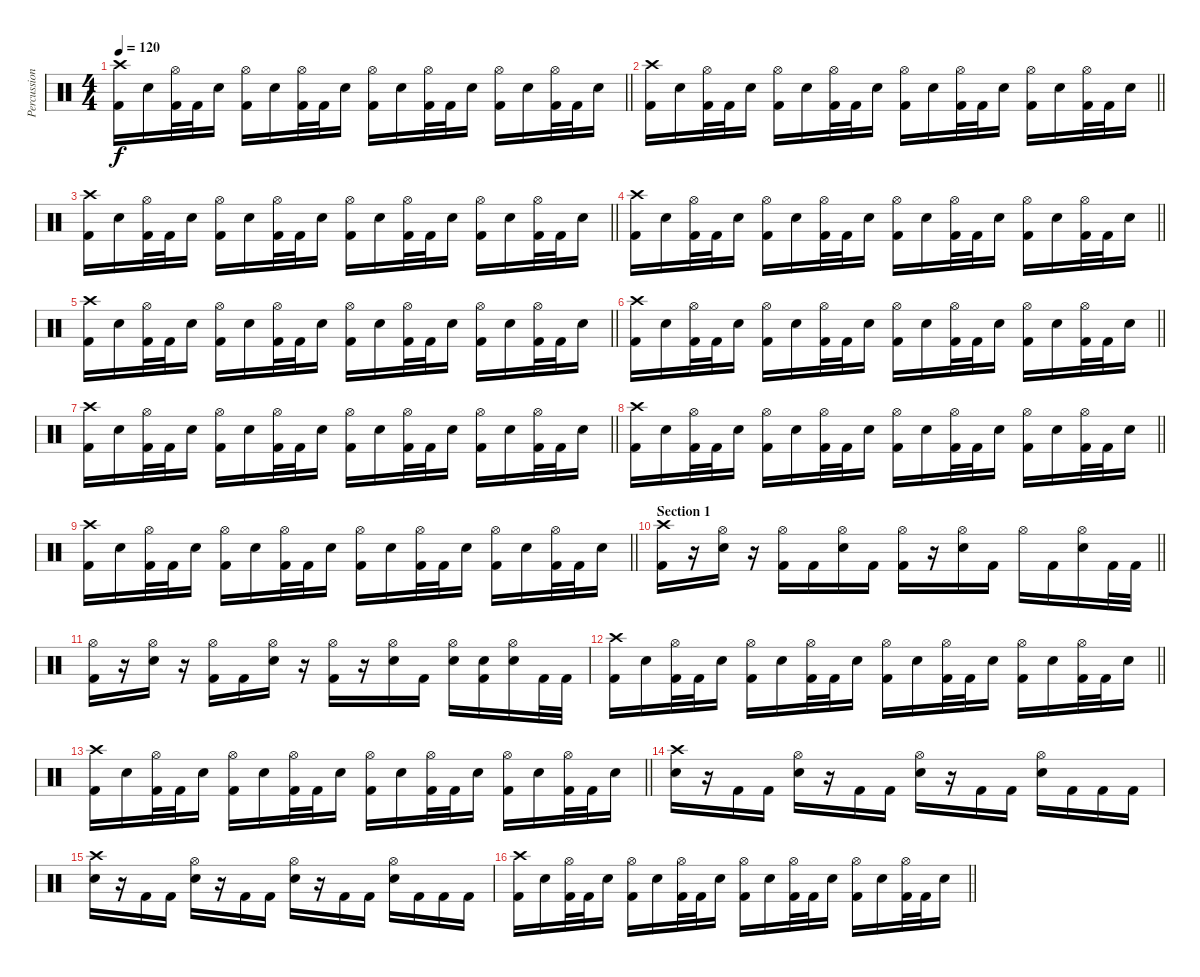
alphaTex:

\track ("Percussion" "Percussion") {instrument percussion}
\staff {score}
\articulation defaults
\ts (4 4)
\tempo 120
\clef neutral
\barLineRight lightlight
\ks c
("Crash high (hit)" "Kick (hit) 2").16{dy f} "Snare (hit) 2".16 ("Hi-Hat (open)" "Kick (hit) 2").32 "Kick (hit) 2".32 "Snare (hit) 2".16 ("Hi-Hat (open)" "Kick (hit) 2").16 "Snare (hit) 2".16 ("Hi-Hat (open)" "Kick (hit) 2").32 "Kick (hit) 2".32 "Snare (hit) 2".16 ("Hi-Hat (open)" "Kick (hit) 2").16 "Snare (hit) 2".16 ("Hi-Hat (open)" "Kick (hit) 2").32 "Kick (hit) 2".32 "Snare (hit) 2".16 ("Hi-Hat (open)" "Kick (hit) 2").16 "Snare (hit) 2".16 ("Hi-Hat (open)" "Kick (hit) 2").32 "Kick (hit) 2".32 "Snare (hit) 2".16 |
\section ("" "")
\barLineRight lightlight
("Crash high (hit)" "Kick (hit) 2").16 "Snare (hit) 2".16 ("Hi-Hat (open)" "Kick (hit) 2").32 "Kick (hit) 2".32 "Snare (hit) 2".16 ("Hi-Hat (open)" "Kick (hit) 2").16 "Snare (hit) 2".16 ("Hi-Hat (open)" "Kick (hit) 2").32 "Kick (hit) 2".32 "Snare (hit) 2".16 ("Hi-Hat (open)" "Kick (hit) 2").16 "Snare (hit) 2".16 ("Hi-Hat (open)" "Kick (hit) 2").32 "Kick (hit) 2".32 "Snare (hit) 2".16 ("Hi-Hat (open)" "Kick (hit) 2").16 "Snare (hit) 2".16 ("Hi-Hat (open)" "Kick (hit) 2").32 "Kick (hit) 2".32 "Snare (hit) 2".16 |
\barLineRight lightlight
("Crash high (hit)" "Kick (hit) 2").16 "Snare (hit) 2".16 ("Hi-Hat (open)" "Kick (hit) 2").32 "Kick (hit) 2".32 "Snare (hit) 2".16 ("Hi-Hat (open)" "Kick (hit) 2").16 "Snare (hit) 2".16 ("Hi-Hat (open)" "Kick (hit) 2").32 "Kick (hit) 2".32 "Snare (hit) 2".16 ("Hi-Hat (open)" "Kick (hit) 2").16 "Snare (hit) 2".16 ("Hi-Hat (open)" "Kick (hit) 2").32 "Kick (hit) 2".32 "Snare (hit) 2".16 ("Hi-Hat (open)" "Kick (hit) 2").16 "Snare (hit) 2".16 ("Hi-Hat (open)" "Kick (hit) 2").32 "Kick (hit) 2".32 "Snare (hit) 2".16 |
\barLineRight lightlight
("Crash high (hit)" "Kick (hit) 2").16 "Snare (hit) 2".16 ("Hi-Hat (open)" "Kick (hit) 2").32 "Kick (hit) 2".32 "Snare (hit) 2".16 ("Hi-Hat (open)" "Kick (hit) 2").16 "Snare (hit) 2".16 ("Hi-Hat (open)" "Kick (hit) 2").32 "Kick (hit) 2".32 "Snare (hit) 2".16 ("Hi-Hat (open)" "Kick (hit) 2").16 "Snare (hit) 2".16 ("Hi-Hat (open)" "Kick (hit) 2").32 "Kick (hit) 2".32 "Snare (hit) 2".16 ("Hi-Hat (open)" "Kick (hit) 2").16 "Snare (hit) 2".16 ("Hi-Hat (open)" "Kick (hit) 2").32 "Kick (hit) 2".32 "Snare (hit) 2".16 |
\barLineRight lightlight
("Crash high (hit)" "Kick (hit) 2").16 "Snare (hit) 2".16 ("Hi-Hat (open)" "Kick (hit) 2").32 "Kick (hit) 2".32 "Snare (hit) 2".16 ("Hi-Hat (open)" "Kick (hit) 2").16 "Snare (hit) 2".16 ("Hi-Hat (open)" "Kick (hit) 2").32 "Kick (hit) 2".32 "Snare (hit) 2".16 ("Hi-Hat (open)" "Kick (hit) 2").16 "Snare (hit) 2".16 ("Hi-Hat (open)" "Kick (hit) 2").32 "Kick (hit) 2".32 "Snare (hit) 2".16 ("Hi-Hat (open)" "Kick (hit) 2").16 "Snare (hit) 2".16 ("Hi-Hat (open)" "Kick (hit) 2").32 "Kick (hit) 2".32 "Snare (hit) 2".16 |
\barLineRight lightlight
("Crash high (hit)" "Kick (hit) 2").16 "Snare (hit) 2".16 ("Hi-Hat (open)" "Kick (hit) 2").32 "Kick (hit) 2".32 "Snare (hit) 2".16 ("Hi-Hat (open)" "Kick (hit) 2").16 "Snare (hit) 2".16 ("Hi-Hat (open)" "Kick (hit) 2").32 "Kick (hit) 2".32 "Snare (hit) 2".16 ("Hi-Hat (open)" "Kick (hit) 2").16 "Snare (hit) 2".16 ("Hi-Hat (open)" "Kick (hit) 2").32 "Kick (hit) 2".32 "Snare (hit) 2".16 ("Hi-Hat (open)" "Kick (hit) 2").16 "Snare (hit) 2".16 ("Hi-Hat (open)" "Kick (hit) 2").32 "Kick (hit) 2".32 "Snare (hit) 2".16 |
\barLineRight lightlight
("Crash high (hit)" "Kick (hit) 2").16 "Snare (hit) 2".16 ("Hi-Hat (open)" "Kick (hit) 2").32 "Kick (hit) 2".32 "Snare (hit) 2".16 ("Hi-Hat (open)" "Kick (hit) 2").16 "Snare (hit) 2".16 ("Hi-Hat (open)" "Kick (hit) 2").32 "Kick (hit) 2".32 "Snare (hit) 2".16 ("Hi-Hat (open)" "Kick (hit) 2").16 "Snare (hit) 2".16 ("Hi-Hat (open)" "Kick (hit) 2").32 "Kick (hit) 2".32 "Snare (hit) 2".16 ("Hi-Hat (open)" "Kick (hit) 2").16 "Snare (hit) 2".16 ("Hi-Hat (open)" "Kick (hit) 2").32 "Kick (hit) 2".32 "Snare (hit) 2".16 |
\barLineRight lightlight
("Crash high (hit)" "Kick (hit) 2").16 "Snare (hit) 2".16 ("Hi-Hat (open)" "Kick (hit) 2").32 "Kick (hit) 2".32 "Snare (hit) 2".16 ("Hi-Hat (open)" "Kick (hit) 2").16 "Snare (hit) 2".16 ("Hi-Hat (open)" "Kick (hit) 2").32 "Kick (hit) 2".32 "Snare (hit) 2".16 ("Hi-Hat (open)" "Kick (hit) 2").16 "Snare (hit) 2".16 ("Hi-Hat (open)" "Kick (hit) 2").32 "Kick (hit) 2".32 "Snare (hit) 2".16 ("Hi-Hat (open)" "Kick (hit) 2").16 "Snare (hit) 2".16 ("Hi-Hat (open)" "Kick (hit) 2").32 "Kick (hit) 2".32 "Snare (hit) 2".16 |
\barLineRight lightlight
("Crash high (hit)" "Kick (hit) 2").16 "Snare (hit) 2".16 ("Hi-Hat (open)" "Kick (hit) 2").32 "Kick (hit) 2".32 "Snare (hit) 2".16 ("Hi-Hat (open)" "Kick (hit) 2").16 "Snare (hit) 2".16 ("Hi-Hat (open)" "Kick (hit) 2").32 "Kick (hit) 2".32 "Snare (hit) 2".16 ("Hi-Hat (open)" "Kick (hit) 2").16 "Snare (hit) 2".16 ("Hi-Hat (open)" "Kick (hit) 2").32 "Kick (hit) 2".32 "Snare (hit) 2".16 ("Hi-Hat (open)" "Kick (hit) 2").16 "Snare (hit) 2".16 ("Hi-Hat (open)" "Kick (hit) 2").32 "Kick (hit) 2".32 "Snare (hit) 2".16 |
\section ("" "Section 1")
\barLineRight lightlight
("Crash high (hit)" "Kick (hit) 2").16 r.16 ("Hi-Hat (open)" "Snare (hit) 2").16 r.16 ("Hi-Hat (open)" "Kick (hit) 2").16 "Kick (hit) 2".16 ("Hi-Hat (open)" "Snare (hit) 2").16 "Kick (hit) 2".16 ("Hi-Hat (open)" "Kick (hit) 2").16 r.16 ("Hi-Hat (open)" "Snare (hit) 2").16 "Kick (hit) 2".16 "Hi-Hat (open)".16 "Kick (hit) 2".16 ("Hi-Hat (open)" "Snare (hit) 2").16 "Kick (hit) 2".32 "Kick (hit) 2".32 |
("Hi-Hat (open)" "Kick (hit) 2").16 r.16 ("Hi-Hat (open)" "Snare (hit) 2").16 r.16 ("Hi-Hat (open)" "Kick (hit) 2").16 "Kick (hit) 2".16 ("Hi-Hat (open)" "Snare (hit) 2").16 r.16 ("Hi-Hat (open)" "Kick (hit) 2").16 r.16 ("Hi-Hat (open)" "Snare (hit) 2").16 "Kick (hit) 2".16 ("Hi-Hat (open)" "Snare (hit) 2").16 ("Snare (hit) 2" "Kick (hit) 2").16 ("Hi-Hat (open)" "Snare (hit) 2").16 "Kick (hit) 2".32 "Kick (hit) 2".32 |
\barLineRight lightlight
("Crash high (hit)" "Kick (hit) 2").16 "Snare (hit) 2".16 ("Hi-Hat (open)" "Kick (hit) 2").32 "Kick (hit) 2".32 "Snare (hit) 2".16 ("Hi-Hat (open)" "Kick (hit) 2").16 "Snare (hit) 2".16 ("Hi-Hat (open)" "Kick (hit) 2").32 "Kick (hit) 2".32 "Snare (hit) 2".16 ("Hi-Hat (open)" "Kick (hit) 2").16 "Snare (hit) 2".16 ("Hi-Hat (open)" "Kick (hit) 2").32 "Kick (hit) 2".32 "Snare (hit) 2".16 ("Hi-Hat (open)" "Kick (hit) 2").16 "Snare (hit) 2".16 ("Hi-Hat (open)" "Kick (hit) 2").32 "Kick (hit) 2".32 "Snare (hit) 2".16 |
\barLineRight lightlight
("Crash high (hit)" "Kick (hit) 2").16 "Snare (hit) 2".16 ("Hi-Hat (open)" "Kick (hit) 2").32 "Kick (hit) 2".32 "Snare (hit) 2".16 ("Hi-Hat (open)" "Kick (hit) 2").16 "Snare (hit) 2".16 ("Hi-Hat (open)" "Kick (hit) 2").32 "Kick (hit) 2".32 "Snare (hit) 2".16 ("Hi-Hat (open)" "Kick (hit) 2").16 "Snare (hit) 2".16 ("Hi-Hat (open)" "Kick (hit) 2").32 "Kick (hit) 2".32 "Snare (hit) 2".16 ("Hi-Hat (open)" "Kick (hit) 2").16 "Snare (hit) 2".16 ("Hi-Hat (open)" "Kick (hit) 2").32 "Kick (hit) 2".32 "Snare (hit) 2".16 |
("Crash high (hit)" "Snare (hit) 2").16 r.16 "Kick (hit) 2".16 "Kick (hit) 2".16 ("Hi-Hat (open)" "Snare (hit) 2").16 r.16 "Kick (hit) 2".16 "Kick (hit) 2".16 ("Hi-Hat (open)" "Snare (hit) 2").16 r.16 "Kick (hit) 2".16 "Kick (hit) 2".16 ("Hi-Hat (open)" "Snare (hit) 2").16 "Kick (hit) 2".16 "Kick (hit) 2".16 "Kick (hit) 2".16 |
("Crash high (hit)" "Snare (hit) 2").16 r.16 "Kick (hit) 2".16 "Kick (hit) 2".16 ("Hi-Hat (open)" "Snare (hit) 2").16 r.16 "Kick (hit) 2".16 "Kick (hit) 2".16 ("Hi-Hat (open)" "Snare (hit) 2").16 r.16 "Kick (hit) 2".16 "Kick (hit) 2".16 ("Hi-Hat (open)" "Snare (hit) 2").16 "Kick (hit) 2".16 "Kick (hit) 2".16 "Kick (hit) 2".16 |
\barLineRight lightlight
("Crash high (hit)" "Kick (hit) 2").16 "Snare (hit) 2".16 ("Hi-Hat (open)" "Kick (hit) 2").32 "Kick (hit) 2".32 "Snare (hit) 2".16 ("Hi-Hat (open)" "Kick (hit) 2").16 "Snare (hit) 2".16 ("Hi-Hat (open)" "Kick (hit) 2").32 "Kick (hit) 2".32 "Snare (hit) 2".16 ("Hi-Hat (open)" "Kick (hit) 2").16 "Snare (hit) 2".16 ("Hi-Hat (open)" "Kick (hit) 2").32 "Kick (hit) 2".32 "Snare (hit) 2".16 ("Hi-Hat (open)" "Kick (hit) 2").16 "Snare (hit) 2".16 ("Hi-Hat (open)" "Kick (hit) 2").32 "Kick (hit) 2".32 "Snare (hit) 2".16
